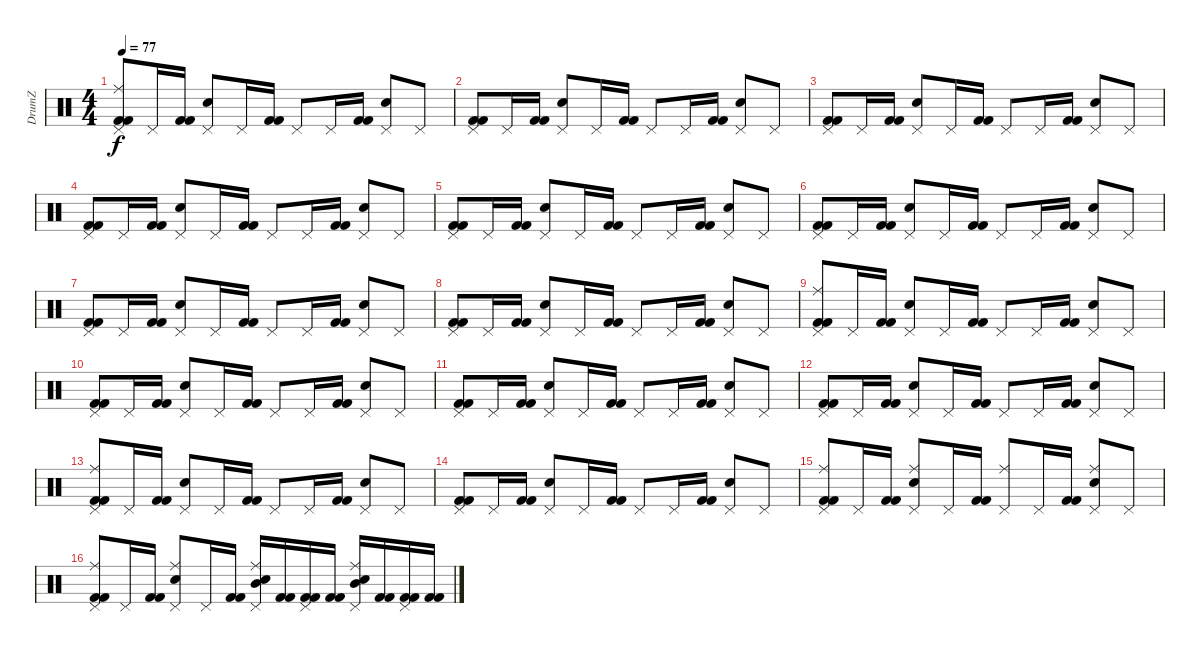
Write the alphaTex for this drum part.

\track ("DrumZ" "DrumZ") {instrument percussion}
\staff {score}
\articulation defaults
\ts (4 4)
\tempo 77
\clef neutral
\ks c
("Pedal Hi-Hat (hit)" "Ride (middle)" "Kick (hit) 2" "Kick (hit) 2").8{dy f} "Pedal Hi-Hat (hit)".16 ("Kick (hit) 2" "Kick (hit) 2").16 ("Pedal Hi-Hat (hit)" "Electric Snare (hit)").8 "Pedal Hi-Hat (hit)".16 ("Kick (hit) 2" "Kick (hit) 2").16 "Pedal Hi-Hat (hit)".8 "Pedal Hi-Hat (hit)".16 ("Kick (hit) 2" "Kick (hit) 2").16 ("Pedal Hi-Hat (hit)" "Electric Snare (hit)").8 "Pedal Hi-Hat (hit)".8 |
("Pedal Hi-Hat (hit)" "Kick (hit) 2" "Kick (hit) 2").8 "Pedal Hi-Hat (hit)".16 ("Kick (hit) 2" "Kick (hit) 2").16 ("Pedal Hi-Hat (hit)" "Electric Snare (hit)").8 "Pedal Hi-Hat (hit)".16 ("Kick (hit) 2" "Kick (hit) 2").16 "Pedal Hi-Hat (hit)".8 "Pedal Hi-Hat (hit)".16 ("Kick (hit) 2" "Kick (hit) 2").16 ("Pedal Hi-Hat (hit)" "Electric Snare (hit)").8 "Pedal Hi-Hat (hit)".8 |
("Pedal Hi-Hat (hit)" "Kick (hit) 2" "Kick (hit) 2").8 "Pedal Hi-Hat (hit)".16 ("Kick (hit) 2" "Kick (hit) 2").16 ("Pedal Hi-Hat (hit)" "Electric Snare (hit)").8 "Pedal Hi-Hat (hit)".16 ("Kick (hit) 2" "Kick (hit) 2").16 "Pedal Hi-Hat (hit)".8 "Pedal Hi-Hat (hit)".16 ("Kick (hit) 2" "Kick (hit) 2").16 ("Pedal Hi-Hat (hit)" "Electric Snare (hit)").8 "Pedal Hi-Hat (hit)".8 |
("Pedal Hi-Hat (hit)" "Kick (hit) 2" "Kick (hit) 2").8 "Pedal Hi-Hat (hit)".16 ("Kick (hit) 2" "Kick (hit) 2").16 ("Pedal Hi-Hat (hit)" "Electric Snare (hit)").8 "Pedal Hi-Hat (hit)".16 ("Kick (hit) 2" "Kick (hit) 2").16 "Pedal Hi-Hat (hit)".8 "Pedal Hi-Hat (hit)".16 ("Kick (hit) 2" "Kick (hit) 2").16 ("Pedal Hi-Hat (hit)" "Electric Snare (hit)").8 "Pedal Hi-Hat (hit)".8 |
("Pedal Hi-Hat (hit)" "Kick (hit) 2" "Kick (hit) 2").8 "Pedal Hi-Hat (hit)".16 ("Kick (hit) 2" "Kick (hit) 2").16 ("Pedal Hi-Hat (hit)" "Electric Snare (hit)").8 "Pedal Hi-Hat (hit)".16 ("Kick (hit) 2" "Kick (hit) 2").16 "Pedal Hi-Hat (hit)".8 "Pedal Hi-Hat (hit)".16 ("Kick (hit) 2" "Kick (hit) 2").16 ("Pedal Hi-Hat (hit)" "Electric Snare (hit)").8 "Pedal Hi-Hat (hit)".8 |
("Pedal Hi-Hat (hit)" "Kick (hit) 2" "Kick (hit) 2").8 "Pedal Hi-Hat (hit)".16 ("Kick (hit) 2" "Kick (hit) 2").16 ("Pedal Hi-Hat (hit)" "Electric Snare (hit)").8 "Pedal Hi-Hat (hit)".16 ("Kick (hit) 2" "Kick (hit) 2").16 "Pedal Hi-Hat (hit)".8 "Pedal Hi-Hat (hit)".16 ("Kick (hit) 2" "Kick (hit) 2").16 ("Pedal Hi-Hat (hit)" "Electric Snare (hit)").8 "Pedal Hi-Hat (hit)".8 |
("Pedal Hi-Hat (hit)" "Kick (hit) 2" "Kick (hit) 2").8 "Pedal Hi-Hat (hit)".16 ("Kick (hit) 2" "Kick (hit) 2").16 ("Pedal Hi-Hat (hit)" "Electric Snare (hit)").8 "Pedal Hi-Hat (hit)".16 ("Kick (hit) 2" "Kick (hit) 2").16 "Pedal Hi-Hat (hit)".8 "Pedal Hi-Hat (hit)".16 ("Kick (hit) 2" "Kick (hit) 2").16 ("Pedal Hi-Hat (hit)" "Electric Snare (hit)").8 "Pedal Hi-Hat (hit)".8 |
("Pedal Hi-Hat (hit)" "Kick (hit) 2" "Kick (hit) 2").8 "Pedal Hi-Hat (hit)".16 ("Kick (hit) 2" "Kick (hit) 2").16 ("Pedal Hi-Hat (hit)" "Electric Snare (hit)").8 "Pedal Hi-Hat (hit)".16 ("Kick (hit) 2" "Kick (hit) 2").16 "Pedal Hi-Hat (hit)".8 "Pedal Hi-Hat (hit)".16 ("Kick (hit) 2" "Kick (hit) 2").16 ("Pedal Hi-Hat (hit)" "Electric Snare (hit)").8 "Pedal Hi-Hat (hit)".8 |
("Pedal Hi-Hat (hit)" "Ride (middle)" "Kick (hit) 2" "Kick (hit) 2").8 "Pedal Hi-Hat (hit)".16 ("Kick (hit) 2" "Kick (hit) 2").16 ("Pedal Hi-Hat (hit)" "Electric Snare (hit)").8 "Pedal Hi-Hat (hit)".16 ("Kick (hit) 2" "Kick (hit) 2").16 "Pedal Hi-Hat (hit)".8 "Pedal Hi-Hat (hit)".16 ("Kick (hit) 2" "Kick (hit) 2").16 ("Pedal Hi-Hat (hit)" "Electric Snare (hit)").8 "Pedal Hi-Hat (hit)".8 |
("Pedal Hi-Hat (hit)" "Kick (hit) 2" "Kick (hit) 2").8 "Pedal Hi-Hat (hit)".16 ("Kick (hit) 2" "Kick (hit) 2").16 ("Pedal Hi-Hat (hit)" "Electric Snare (hit)").8 "Pedal Hi-Hat (hit)".16 ("Kick (hit) 2" "Kick (hit) 2").16 "Pedal Hi-Hat (hit)".8 "Pedal Hi-Hat (hit)".16 ("Kick (hit) 2" "Kick (hit) 2").16 ("Pedal Hi-Hat (hit)" "Electric Snare (hit)").8 "Pedal Hi-Hat (hit)".8 |
("Pedal Hi-Hat (hit)" "Kick (hit) 2" "Kick (hit) 2").8 "Pedal Hi-Hat (hit)".16 ("Kick (hit) 2" "Kick (hit) 2").16 ("Pedal Hi-Hat (hit)" "Electric Snare (hit)").8 "Pedal Hi-Hat (hit)".16 ("Kick (hit) 2" "Kick (hit) 2").16 "Pedal Hi-Hat (hit)".8 "Pedal Hi-Hat (hit)".16 ("Kick (hit) 2" "Kick (hit) 2").16 ("Pedal Hi-Hat (hit)" "Electric Snare (hit)").8 "Pedal Hi-Hat (hit)".8 |
("Pedal Hi-Hat (hit)" "Kick (hit) 2" "Kick (hit) 2").8 "Pedal Hi-Hat (hit)".16 ("Kick (hit) 2" "Kick (hit) 2").16 ("Pedal Hi-Hat (hit)" "Electric Snare (hit)").8 "Pedal Hi-Hat (hit)".16 ("Kick (hit) 2" "Kick (hit) 2").16 "Pedal Hi-Hat (hit)".8 "Pedal Hi-Hat (hit)".16 ("Kick (hit) 2" "Kick (hit) 2").16 ("Pedal Hi-Hat (hit)" "Electric Snare (hit)").8 "Pedal Hi-Hat (hit)".8 |
("Pedal Hi-Hat (hit)" "Ride (middle)" "Kick (hit) 2" "Kick (hit) 2").8 "Pedal Hi-Hat (hit)".16 ("Kick (hit) 2" "Kick (hit) 2").16 ("Pedal Hi-Hat (hit)" "Electric Snare (hit)").8 "Pedal Hi-Hat (hit)".16 ("Kick (hit) 2" "Kick (hit) 2").16 "Pedal Hi-Hat (hit)".8 "Pedal Hi-Hat (hit)".16 ("Kick (hit) 2" "Kick (hit) 2").16 ("Pedal Hi-Hat (hit)" "Electric Snare (hit)").8 "Pedal Hi-Hat (hit)".8 |
("Pedal Hi-Hat (hit)" "Kick (hit) 2" "Kick (hit) 2").8 "Pedal Hi-Hat (hit)".16 ("Kick (hit) 2" "Kick (hit) 2").16 ("Pedal Hi-Hat (hit)" "Electric Snare (hit)").8 "Pedal Hi-Hat (hit)".16 ("Kick (hit) 2" "Kick (hit) 2").16 "Pedal Hi-Hat (hit)".8 "Pedal Hi-Hat (hit)".16 ("Kick (hit) 2" "Kick (hit) 2").16 ("Pedal Hi-Hat (hit)" "Electric Snare (hit)").8 "Pedal Hi-Hat (hit)".8 |
("Pedal Hi-Hat (hit)" "Ride (middle)" "Kick (hit) 2" "Kick (hit) 2").8 "Pedal Hi-Hat (hit)".16 ("Kick (hit) 2" "Kick (hit) 2").16 ("Pedal Hi-Hat (hit)" "Ride (middle)" "Electric Snare (hit)").8 "Pedal Hi-Hat (hit)".16 ("Kick (hit) 2" "Kick (hit) 2").16 ("Pedal Hi-Hat (hit)" "Ride (middle)").8 "Pedal Hi-Hat (hit)".16 ("Kick (hit) 2" "Kick (hit) 2").16 ("Pedal Hi-Hat (hit)" "Ride (middle)" "Electric Snare (hit)").8 "Pedal Hi-Hat (hit)".8 |
("Pedal Hi-Hat (hit)" "Ride (middle)" "Kick (hit) 2" "Kick (hit) 2").8 "Pedal Hi-Hat (hit)".16 ("Kick (hit) 2" "Kick (hit) 2").16 ("Pedal Hi-Hat (hit)" "Ride (middle)" "Electric Snare (hit)").8 "Pedal Hi-Hat (hit)".16 ("Kick (hit) 2" "Kick (hit) 2").16 ("Pedal Hi-Hat (hit)" "Ride (middle)" "Electric Snare (hit)" "Mid Tom (hit)").16 ("Kick (hit) 2" "Kick (hit) 2").16 ("Pedal Hi-Hat (hit)" "Kick (hit) 2" "Kick (hit) 2").16 ("Kick (hit) 2" "Kick (hit) 2").16 ("Pedal Hi-Hat (hit)" "Ride (middle)" "Electric Snare (hit)" "Mid Tom (hit)").16 ("Kick (hit) 2" "Kick (hit) 2").16 ("Pedal Hi-Hat (hit)" "Kick (hit) 2" "Kick (hit) 2").16 ("Kick (hit) 2" "Kick (hit) 2").16
